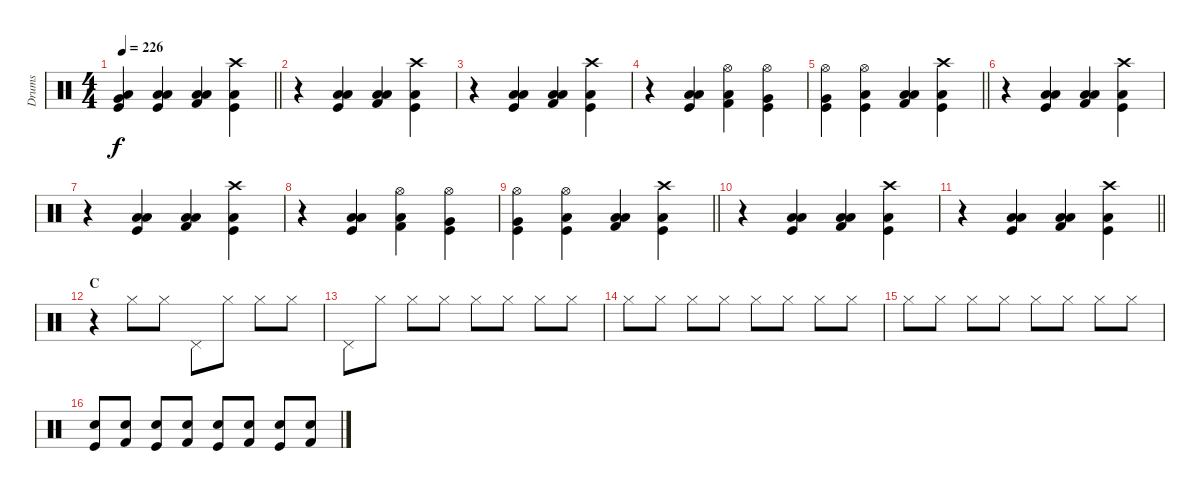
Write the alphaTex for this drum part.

\track ("Drums" "Drums") {instrument percussion}
\staff {score}
\articulation defaults
\ts (4 4)
\tempo 226
\clef neutral
\barLineRight lightlight
\ks c
("Kick (hit)" "Low Floor Tom (hit)" "Very Low Tom (hit)").4{dy f} ("Kick (hit)" "Low Floor Tom (hit)" "Low Tom (hit)").4 ("Kick (hit) 2" "Low Floor Tom (hit)" "Low Tom (hit)").4 ("Kick (hit)" "Low Floor Tom (hit)" "Crash high (hit)").4 |
r.4 ("Kick (hit)" "Low Floor Tom (hit)" "Low Tom (hit)").4 ("Kick (hit) 2" "Low Floor Tom (hit)" "Low Tom (hit)").4 ("Kick (hit)" "Low Floor Tom (hit)" "Crash high (hit)").4 |
r.4 ("Kick (hit)" "Low Floor Tom (hit)" "Low Tom (hit)").4 ("Kick (hit) 2" "Low Floor Tom (hit)" "Low Tom (hit)").4 ("Kick (hit)" "Low Floor Tom (hit)" "Crash high (hit)").4 |
r.4 ("Kick (hit)" "Low Floor Tom (hit)" "Low Tom (hit)").4 ("Kick (hit) 2" "Hi-Hat (open)" "Low Tom (hit)").4 ("Kick (hit)" "Hi-Hat (open)" "Very Low Tom (hit)").4 |
\barLineRight lightlight
("Kick (hit)" "Hi-Hat (open)" "Very Low Tom (hit)").4 ("Kick (hit)" "Hi-Hat (open)" "Low Tom (hit)").4 ("Kick (hit) 2" "Low Floor Tom (hit)" "Low Tom (hit)").4 ("Kick (hit)" "Low Floor Tom (hit)" "Crash high (hit)").4 |
r.4 ("Kick (hit)" "Low Floor Tom (hit)" "Low Tom (hit)").4 ("Kick (hit) 2" "Low Floor Tom (hit)" "Low Tom (hit)").4 ("Kick (hit)" "Low Floor Tom (hit)" "Crash high (hit)").4 |
r.4 ("Kick (hit)" "Low Floor Tom (hit)" "Low Tom (hit)").4 ("Kick (hit) 2" "Low Floor Tom (hit)" "Low Tom (hit)").4 ("Kick (hit)" "Low Floor Tom (hit)" "Crash high (hit)").4 |
r.4 ("Kick (hit)" "Low Floor Tom (hit)" "Low Tom (hit)").4 ("Kick (hit) 2" "Hi-Hat (open)" "Low Tom (hit)").4 ("Kick (hit)" "Hi-Hat (open)" "Very Low Tom (hit)").4 |
\barLineRight lightlight
("Kick (hit)" "Hi-Hat (open)" "Very Low Tom (hit)").4 ("Kick (hit)" "Hi-Hat (open)" "Low Tom (hit)").4 ("Kick (hit) 2" "Low Floor Tom (hit)" "Low Tom (hit)").4 ("Kick (hit)" "Low Floor Tom (hit)" "Crash high (hit)").4 |
r.4 ("Kick (hit)" "Low Floor Tom (hit)" "Low Tom (hit)").4 ("Kick (hit) 2" "Low Floor Tom (hit)" "Low Tom (hit)").4 ("Kick (hit)" "Low Floor Tom (hit)" "Crash high (hit)").4 |
\barLineRight lightlight
r.4 ("Kick (hit)" "Low Floor Tom (hit)" "Low Tom (hit)").4 ("Kick (hit) 2" "Low Floor Tom (hit)" "Low Tom (hit)").4 ("Kick (hit)" "Low Floor Tom (hit)" "Crash high (hit)").4 |
\section ("" "C")
r.4 "Hi-Hat (closed)".8 "Hi-Hat (closed)".8 "Pedal Hi-Hat (hit)".8 "Hi-Hat (closed)".8 "Hi-Hat (closed)".8 "Hi-Hat (closed)".8 |
"Pedal Hi-Hat (hit)".8 "Hi-Hat (closed)".8 "Hi-Hat (closed)".8 "Hi-Hat (closed)".8 "Hi-Hat (closed)".8 "Hi-Hat (closed)".8 "Hi-Hat (closed)".8 "Hi-Hat (closed)".8 |
"Hi-Hat (closed)".8 "Hi-Hat (closed)".8 "Hi-Hat (closed)".8 "Hi-Hat (closed)".8 "Hi-Hat (closed)".8 "Hi-Hat (closed)".8 "Hi-Hat (closed)".8 "Hi-Hat (closed)".8 |
"Hi-Hat (closed)".8 "Hi-Hat (closed)".8 "Hi-Hat (closed)".8 "Hi-Hat (closed)".8 "Hi-Hat (closed)".8 "Hi-Hat (closed)".8 "Hi-Hat (closed)".8 "Hi-Hat (closed)".8 |
("Kick (hit)" "Snare (hit) 2").8 ("Kick (hit) 2" "Snare (hit) 2").8 ("Kick (hit)" "Snare (hit) 2").8 ("Kick (hit) 2" "Snare (hit) 2").8 ("Kick (hit)" "Snare (hit) 2").8 ("Kick (hit) 2" "Snare (hit) 2").8 ("Kick (hit)" "Snare (hit) 2").8 ("Kick (hit) 2" "Snare (hit) 2").8
